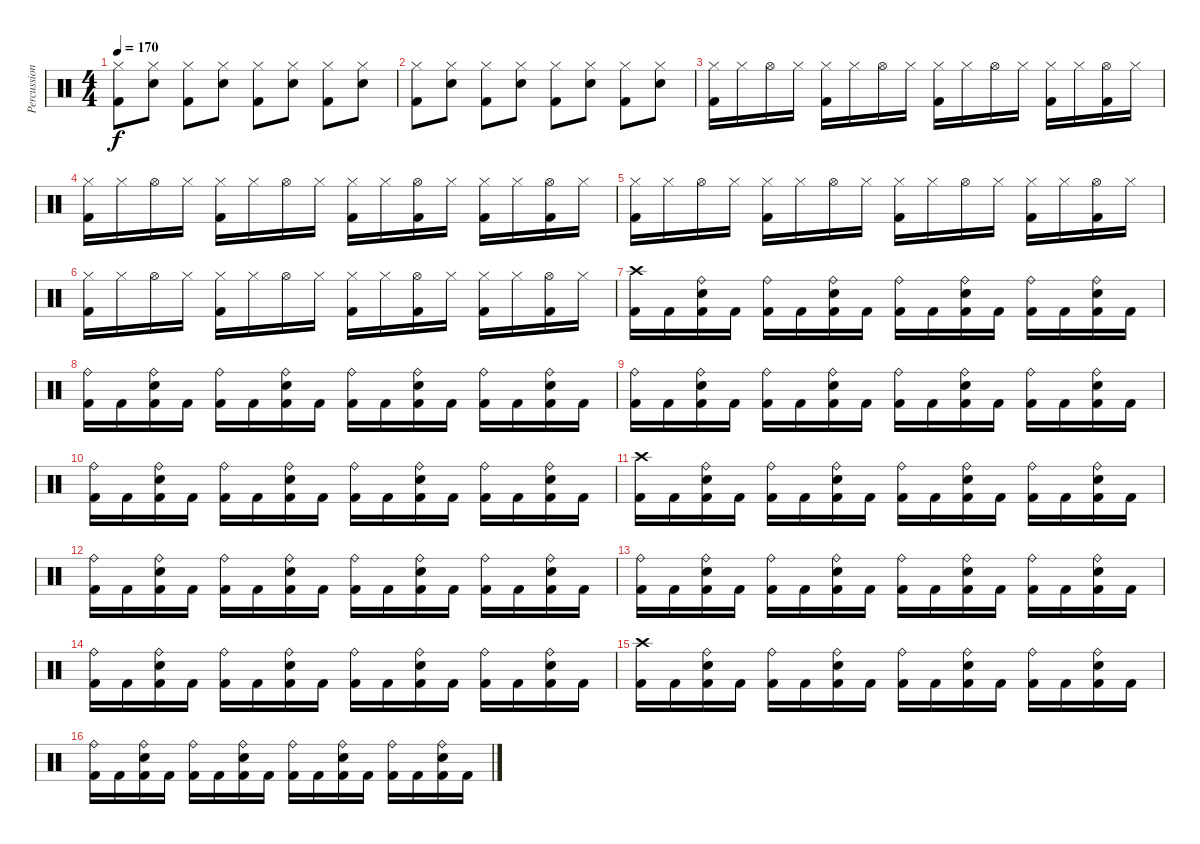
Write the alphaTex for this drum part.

\track ("Percussions" "Percussion") {instrument percussion}
\staff {score}
\articulation defaults
\ts (4 4)
\tempo 170
\clef neutral
\ks c
("Hi-Hat (closed)" "Kick (hit) 2").8{dy f} ("Hi-Hat (closed)" "Snare (hit) 2").8 ("Hi-Hat (closed)" "Kick (hit) 2").8 ("Hi-Hat (closed)" "Snare (hit) 2").8 ("Hi-Hat (closed)" "Kick (hit) 2").8 ("Hi-Hat (closed)" "Snare (hit) 2").8 ("Hi-Hat (closed)" "Kick (hit) 2").8 ("Hi-Hat (closed)" "Snare (hit) 2").8 |
("Hi-Hat (closed)" "Kick (hit) 2").8 ("Hi-Hat (closed)" "Snare (hit) 2").8 ("Hi-Hat (closed)" "Kick (hit) 2").8 ("Hi-Hat (closed)" "Snare (hit) 2").8 ("Hi-Hat (closed)" "Kick (hit) 2").8 ("Hi-Hat (closed)" "Snare (hit) 2").8 ("Hi-Hat (closed)" "Kick (hit) 2").8 ("Hi-Hat (closed)" "Snare (hit) 2").8 |
("Hi-Hat (closed)" "Kick (hit) 2").16 "Hi-Hat (closed)".16 "Hi-Hat (open)".16 "Hi-Hat (closed)".16 ("Hi-Hat (closed)" "Kick (hit) 2").16 "Hi-Hat (closed)".16 "Hi-Hat (open)".16 "Hi-Hat (closed)".16 ("Hi-Hat (closed)" "Kick (hit) 2").16 "Hi-Hat (closed)".16 "Hi-Hat (open)".16 "Hi-Hat (closed)".16 ("Hi-Hat (closed)" "Kick (hit) 2").16 "Hi-Hat (closed)".16 ("Hi-Hat (open)" "Kick (hit) 2").16 "Hi-Hat (closed)".16 |
("Hi-Hat (closed)" "Kick (hit) 2").16 "Hi-Hat (closed)".16 "Hi-Hat (open)".16 "Hi-Hat (closed)".16 ("Hi-Hat (closed)" "Kick (hit) 2").16 "Hi-Hat (closed)".16 "Hi-Hat (open)".16 "Hi-Hat (closed)".16 ("Hi-Hat (closed)" "Kick (hit) 2").16 "Hi-Hat (closed)".16 ("Hi-Hat (open)" "Kick (hit) 2").16 "Hi-Hat (closed)".16 ("Hi-Hat (closed)" "Kick (hit) 2").16 "Hi-Hat (closed)".16 ("Hi-Hat (open)" "Kick (hit) 2").16 "Hi-Hat (closed)".16 |
("Hi-Hat (closed)" "Kick (hit) 2").16 "Hi-Hat (closed)".16 "Hi-Hat (open)".16 "Hi-Hat (closed)".16 ("Hi-Hat (closed)" "Kick (hit) 2").16 "Hi-Hat (closed)".16 "Hi-Hat (open)".16 "Hi-Hat (closed)".16 ("Hi-Hat (closed)" "Kick (hit) 2").16 "Hi-Hat (closed)".16 "Hi-Hat (open)".16 "Hi-Hat (closed)".16 ("Hi-Hat (closed)" "Kick (hit) 2").16 "Hi-Hat (closed)".16 ("Hi-Hat (open)" "Kick (hit) 2").16 "Hi-Hat (closed)".16 |
("Hi-Hat (closed)" "Kick (hit) 2").16 "Hi-Hat (closed)".16 "Hi-Hat (open)".16 "Hi-Hat (closed)".16 ("Hi-Hat (closed)" "Kick (hit) 2").16 "Hi-Hat (closed)".16 "Hi-Hat (open)".16 "Hi-Hat (closed)".16 ("Hi-Hat (closed)" "Kick (hit) 2").16 "Hi-Hat (closed)".16 ("Hi-Hat (open)" "Kick (hit) 2").16 "Hi-Hat (closed)".16 ("Hi-Hat (closed)" "Kick (hit) 2").16 "Hi-Hat (closed)".16 ("Hi-Hat (open)" "Kick (hit) 2").16 "Hi-Hat (closed)".16 |
("Crash high (hit)" "Kick (hit) 2").16 "Kick (hit) 2".16 ("Ride (bell)" "Snare (hit) 2" "Kick (hit) 2").16 "Kick (hit) 2".16 ("Ride (bell)" "Kick (hit) 2").16 "Kick (hit) 2".16 ("Ride (bell)" "Snare (hit) 2" "Kick (hit) 2").16 "Kick (hit) 2".16 ("Ride (bell)" "Kick (hit) 2").16 "Kick (hit) 2".16 ("Ride (bell)" "Snare (hit) 2" "Kick (hit) 2").16 "Kick (hit) 2".16 ("Ride (bell)" "Kick (hit) 2").16 "Kick (hit) 2".16 ("Ride (bell)" "Snare (hit) 2" "Kick (hit) 2").16 "Kick (hit) 2".16 |
("Ride (bell)" "Kick (hit) 2").16 "Kick (hit) 2".16 ("Ride (bell)" "Snare (hit) 2" "Kick (hit) 2").16 "Kick (hit) 2".16 ("Ride (bell)" "Kick (hit) 2").16 "Kick (hit) 2".16 ("Ride (bell)" "Snare (hit) 2" "Kick (hit) 2").16 "Kick (hit) 2".16 ("Ride (bell)" "Kick (hit) 2").16 "Kick (hit) 2".16 ("Ride (bell)" "Snare (hit) 2" "Kick (hit) 2").16 "Kick (hit) 2".16 ("Ride (bell)" "Kick (hit) 2").16 "Kick (hit) 2".16 ("Ride (bell)" "Snare (hit) 2" "Kick (hit) 2").16 "Kick (hit) 2".16 |
("Ride (bell)" "Kick (hit) 2").16 "Kick (hit) 2".16 ("Ride (bell)" "Snare (hit) 2" "Kick (hit) 2").16 "Kick (hit) 2".16 ("Ride (bell)" "Kick (hit) 2").16 "Kick (hit) 2".16 ("Ride (bell)" "Snare (hit) 2" "Kick (hit) 2").16 "Kick (hit) 2".16 ("Ride (bell)" "Kick (hit) 2").16 "Kick (hit) 2".16 ("Ride (bell)" "Snare (hit) 2" "Kick (hit) 2").16 "Kick (hit) 2".16 ("Ride (bell)" "Kick (hit) 2").16 "Kick (hit) 2".16 ("Ride (bell)" "Snare (hit) 2" "Kick (hit) 2").16 "Kick (hit) 2".16 |
("Ride (bell)" "Kick (hit) 2").16 "Kick (hit) 2".16 ("Ride (bell)" "Snare (hit) 2" "Kick (hit) 2").16 "Kick (hit) 2".16 ("Ride (bell)" "Kick (hit) 2").16 "Kick (hit) 2".16 ("Ride (bell)" "Snare (hit) 2" "Kick (hit) 2").16 "Kick (hit) 2".16 ("Ride (bell)" "Kick (hit) 2").16 "Kick (hit) 2".16 ("Ride (bell)" "Snare (hit) 2" "Kick (hit) 2").16 "Kick (hit) 2".16 ("Ride (bell)" "Kick (hit) 2").16 "Kick (hit) 2".16 ("Ride (bell)" "Snare (hit) 2" "Kick (hit) 2").16 "Kick (hit) 2".16 |
("Crash high (hit)" "Kick (hit) 2").16 "Kick (hit) 2".16 ("Ride (bell)" "Snare (hit) 2" "Kick (hit) 2").16 "Kick (hit) 2".16 ("Ride (bell)" "Kick (hit) 2").16 "Kick (hit) 2".16 ("Ride (bell)" "Snare (hit) 2" "Kick (hit) 2").16 "Kick (hit) 2".16 ("Ride (bell)" "Kick (hit) 2").16 "Kick (hit) 2".16 ("Ride (bell)" "Snare (hit) 2" "Kick (hit) 2").16 "Kick (hit) 2".16 ("Ride (bell)" "Kick (hit) 2").16 "Kick (hit) 2".16 ("Ride (bell)" "Snare (hit) 2" "Kick (hit) 2").16 "Kick (hit) 2".16 |
("Ride (bell)" "Kick (hit) 2").16 "Kick (hit) 2".16 ("Ride (bell)" "Snare (hit) 2" "Kick (hit) 2").16 "Kick (hit) 2".16 ("Ride (bell)" "Kick (hit) 2").16 "Kick (hit) 2".16 ("Ride (bell)" "Snare (hit) 2" "Kick (hit) 2").16 "Kick (hit) 2".16 ("Ride (bell)" "Kick (hit) 2").16 "Kick (hit) 2".16 ("Ride (bell)" "Snare (hit) 2" "Kick (hit) 2").16 "Kick (hit) 2".16 ("Ride (bell)" "Kick (hit) 2").16 "Kick (hit) 2".16 ("Ride (bell)" "Snare (hit) 2" "Kick (hit) 2").16 "Kick (hit) 2".16 |
("Ride (bell)" "Kick (hit) 2").16 "Kick (hit) 2".16 ("Ride (bell)" "Snare (hit) 2" "Kick (hit) 2").16 "Kick (hit) 2".16 ("Ride (bell)" "Kick (hit) 2").16 "Kick (hit) 2".16 ("Ride (bell)" "Snare (hit) 2" "Kick (hit) 2").16 "Kick (hit) 2".16 ("Ride (bell)" "Kick (hit) 2").16 "Kick (hit) 2".16 ("Ride (bell)" "Snare (hit) 2" "Kick (hit) 2").16 "Kick (hit) 2".16 ("Ride (bell)" "Kick (hit) 2").16 "Kick (hit) 2".16 ("Ride (bell)" "Snare (hit) 2" "Kick (hit) 2").16 "Kick (hit) 2".16 |
("Ride (bell)" "Kick (hit) 2").16 "Kick (hit) 2".16 ("Ride (bell)" "Snare (hit) 2" "Kick (hit) 2").16 "Kick (hit) 2".16 ("Ride (bell)" "Kick (hit) 2").16 "Kick (hit) 2".16 ("Ride (bell)" "Snare (hit) 2" "Kick (hit) 2").16 "Kick (hit) 2".16 ("Ride (bell)" "Kick (hit) 2").16 "Kick (hit) 2".16 ("Ride (bell)" "Snare (hit) 2" "Kick (hit) 2").16 "Kick (hit) 2".16 ("Ride (bell)" "Kick (hit) 2").16 "Kick (hit) 2".16 ("Ride (bell)" "Snare (hit) 2" "Kick (hit) 2").16 "Kick (hit) 2".16 |
("Crash high (hit)" "Kick (hit) 2").16 "Kick (hit) 2".16 ("Ride (bell)" "Snare (hit) 2" "Kick (hit) 2").16 "Kick (hit) 2".16 ("Ride (bell)" "Kick (hit) 2").16 "Kick (hit) 2".16 ("Ride (bell)" "Snare (hit) 2" "Kick (hit) 2").16 "Kick (hit) 2".16 ("Ride (bell)" "Kick (hit) 2").16 "Kick (hit) 2".16 ("Ride (bell)" "Snare (hit) 2" "Kick (hit) 2").16 "Kick (hit) 2".16 ("Ride (bell)" "Kick (hit) 2").16 "Kick (hit) 2".16 ("Ride (bell)" "Snare (hit) 2" "Kick (hit) 2").16 "Kick (hit) 2".16 |
("Ride (bell)" "Kick (hit) 2").16 "Kick (hit) 2".16 ("Ride (bell)" "Snare (hit) 2" "Kick (hit) 2").16 "Kick (hit) 2".16 ("Ride (bell)" "Kick (hit) 2").16 "Kick (hit) 2".16 ("Ride (bell)" "Snare (hit) 2" "Kick (hit) 2").16 "Kick (hit) 2".16 ("Ride (bell)" "Kick (hit) 2").16 "Kick (hit) 2".16 ("Ride (bell)" "Snare (hit) 2" "Kick (hit) 2").16 "Kick (hit) 2".16 ("Ride (bell)" "Kick (hit) 2").16 "Kick (hit) 2".16 ("Ride (bell)" "Snare (hit) 2" "Kick (hit) 2").16 "Kick (hit) 2".16
